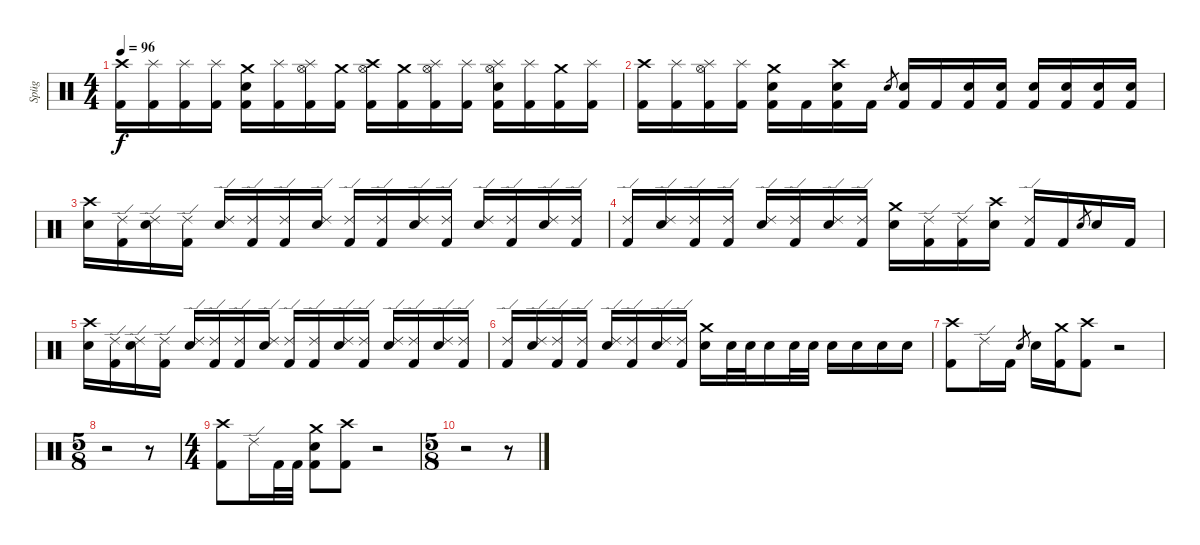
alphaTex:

\track ("Spüg" "Spüg") {instrument percussion}
\staff {score}
\articulation defaults
\ts (4 4)
\tempo 96
\clef neutral
\ks c
("Crash high (hit)" "Kick (hit) 2").16{dy f} ("Splash (hit)" "Kick (hit) 2").16 ("Splash (hit)" "Kick (hit) 2").16 ("Splash (hit)" "Kick (hit) 2").16 ("Crash medium (hit)" "Electric Snare (hit)" "Kick (hit) 2").16 ("Splash (hit)" "Kick (hit) 2").16 ("Hi-Hat (open)" "Splash (hit)" "Kick (hit) 2").16 ("Crash medium (hit)" "Kick (hit) 2").16 ("Crash high (hit)" "Hi-Hat (open)" "Kick (hit) 2").16 ("Crash medium (hit)" "Kick (hit) 2").16 ("Hi-Hat (open)" "Splash (hit)" "Kick (hit) 2").16 ("Splash (hit)" "Kick (hit) 2").16 ("Hi-Hat (open)" "Splash (hit)" "Electric Snare (hit)" "Kick (hit) 2").16 ("Splash (hit)" "Kick (hit) 2").16 ("Crash medium (hit)" "Kick (hit) 2").16 ("Splash (hit)" "Kick (hit) 2").16 |
("Crash high (hit)" "Kick (hit) 2").16 ("Splash (hit)" "Kick (hit) 2").16 ("Hi-Hat (open)" "Splash (hit)" "Kick (hit) 2").16 ("Splash (hit)" "Kick (hit) 2").16 ("Crash medium (hit)" "Electric Snare (hit)" "Kick (hit) 2").16 "Kick (hit) 2".16 ("Crash high (hit)" "Electric Snare (hit)" "Kick (hit) 2").16 "Kick (hit) 2".16 "Electric Snare (hit)".8{gr} ("Electric Snare (hit)" "Kick (hit) 2").16 "Kick (hit) 2".16 ("Electric Snare (hit)" "Kick (hit) 2").16 ("Electric Snare (hit)" "Kick (hit) 2").16 ("Electric Snare (hit)" "Kick (hit) 2").16 ("Electric Snare (hit)" "Kick (hit) 2").16 ("Electric Snare (hit)" "Kick (hit) 2").16 ("Electric Snare (hit)" "Kick (hit) 2").16 |
("Crash high (hit)" "Electric Snare (hit)").16 ("Ride (edge) 2" "Kick (hit) 2").16 ("Ride (edge) 2" "Electric Snare (hit)").16 ("Ride (edge) 2" "Kick (hit) 2").16 ("Ride (edge) 2" "Electric Snare (hit)").16 ("Ride (edge) 2" "Kick (hit) 2").16 ("Ride (edge) 2" "Kick (hit) 2").16 ("Ride (edge) 2" "Electric Snare (hit)").16 ("Ride (edge) 2" "Kick (hit) 2").16 ("Ride (edge) 2" "Kick (hit) 2").16 ("Ride (edge) 2" "Electric Snare (hit)").16 ("Ride (edge) 2" "Kick (hit) 2").16 ("Ride (edge) 2" "Electric Snare (hit)").16 ("Ride (edge) 2" "Kick (hit) 2").16 ("Ride (edge) 2" "Electric Snare (hit)").16 ("Ride (edge) 2" "Kick (hit) 2").16 |
("Ride (edge) 2" "Kick (hit) 2").16 ("Ride (edge) 2" "Electric Snare (hit)").16 ("Ride (edge) 2" "Kick (hit) 2").16 ("Ride (edge) 2" "Kick (hit) 2").16 ("Ride (edge) 2" "Electric Snare (hit)").16 ("Ride (edge) 2" "Kick (hit) 2").16 ("Ride (edge) 2" "Electric Snare (hit)").16 ("Ride (edge) 2" "Kick (hit) 2").16 ("Crash medium (hit)" "Electric Snare (hit)").16 ("Ride (edge) 2" "Kick (hit) 2").16 ("Ride (edge) 2" "Kick (hit) 2").16 ("Crash high (hit)" "Electric Snare (hit)").16 ("Ride (edge) 2" "Kick (hit) 2").16 "Kick (hit) 2".16 "Electric Snare (hit)".8{gr} "Electric Snare (hit)".16 "Kick (hit) 2".16 |
("Crash high (hit)" "Electric Snare (hit)").16 ("Ride (edge) 2" "Kick (hit) 2").16 ("Ride (edge) 2" "Electric Snare (hit)").16 ("Ride (edge) 2" "Kick (hit) 2").16 ("Ride (edge) 2" "Electric Snare (hit)").16 ("Ride (edge) 2" "Kick (hit) 2").16 ("Ride (edge) 2" "Kick (hit) 2").16 ("Ride (edge) 2" "Electric Snare (hit)").16 ("Ride (edge) 2" "Kick (hit) 2").16 ("Ride (edge) 2" "Kick (hit) 2").16 ("Ride (edge) 2" "Electric Snare (hit)").16 ("Ride (edge) 2" "Kick (hit) 2").16 ("Ride (edge) 2" "Electric Snare (hit)").16 ("Ride (edge) 2" "Kick (hit) 2").16 ("Ride (edge) 2" "Electric Snare (hit)").16 ("Ride (edge) 2" "Kick (hit) 2").16 |
("Ride (edge) 2" "Kick (hit) 2").16 ("Ride (edge) 2" "Electric Snare (hit)").16 ("Ride (edge) 2" "Kick (hit) 2").16 ("Ride (edge) 2" "Kick (hit) 2").16 ("Ride (edge) 2" "Electric Snare (hit)").16 ("Ride (edge) 2" "Kick (hit) 2").16 ("Ride (edge) 2" "Electric Snare (hit)").16 ("Ride (edge) 2" "Kick (hit) 2").16 ("Crash medium (hit)" "Electric Snare (hit)").16 "Electric Snare (hit)".32 "Electric Snare (hit)".32 "Electric Snare (hit)".16 "Electric Snare (hit)".32 "Electric Snare (hit)".32 "Electric Snare (hit)".16 "Electric Snare (hit)".16 "Electric Snare (hit)".16 "Electric Snare (hit)".16 |
("Crash high (hit)" "Kick (hit) 2").8 "Ride (edge) 2".16 "Kick (hit) 2".16 "Electric Snare (hit)".8{gr} "Electric Snare (hit)".16 ("Crash medium (hit)" "Kick (hit) 2").16 ("Crash high (hit)" "Kick (hit) 2").8 r.2 |
\ts (5 8)
r.2 r.8 |
\ts (4 4)
("Crash high (hit)" "Kick (hit) 2").8 "Ride (edge) 2".16 "Kick (hit) 2".32 "Kick (hit) 2".32 ("Crash medium (hit)" "Electric Snare (hit)" "Kick (hit) 2").8 ("Crash high (hit)" "Kick (hit) 2").8 r.2 |
\ts (5 8)
r.2 r.8
